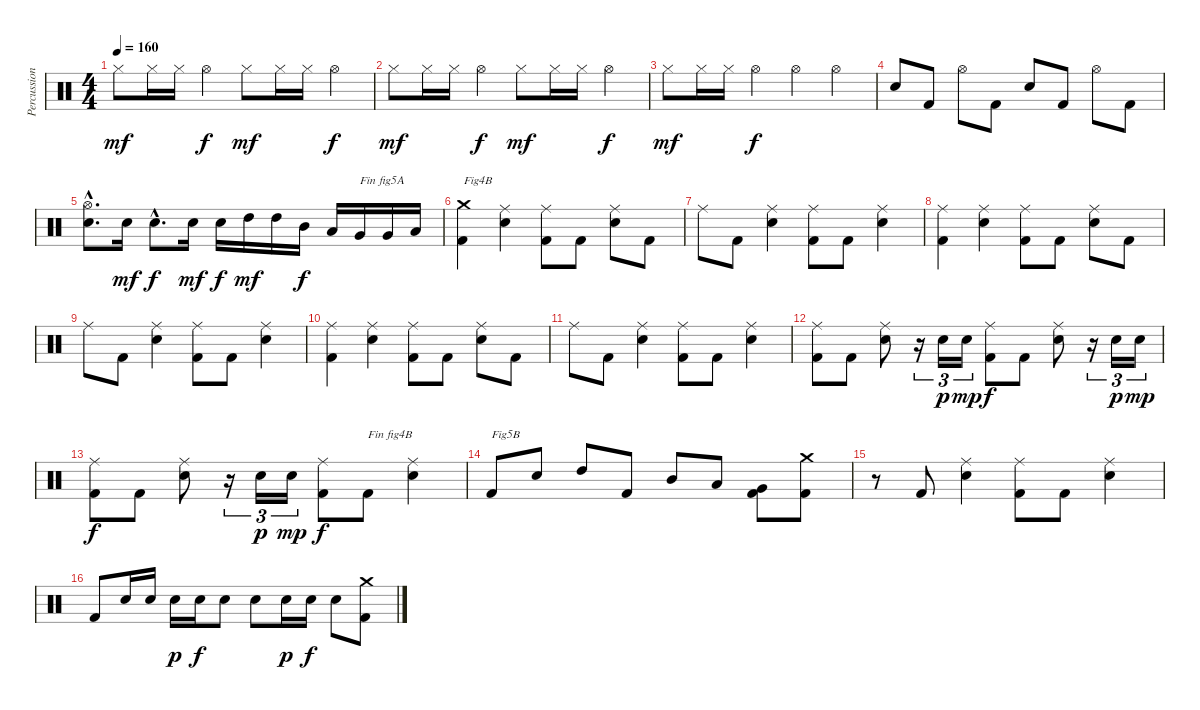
\track ("Percussions" "Percussion") {instrument percussion}
\staff {score}
\articulation defaults
\ts (4 4)
\tempo 160
\clef neutral
\ks c "Hi-Hat (closed)".8{dy mf} "Hi-Hat (closed)".16 "Hi-Hat (closed)".16 "Hi-Hat (open)".4{dy f} "Hi-Hat (closed)".8{dy mf} "Hi-Hat (closed)".16 "Hi-Hat (closed)".16 "Hi-Hat (open)".4{dy f}
|
"Hi-Hat (closed)".8{dy mf} "Hi-Hat (closed)".16 "Hi-Hat (closed)".16 "Hi-Hat (open)".4{dy f} "Hi-Hat (closed)".8{dy mf} "Hi-Hat (closed)".16 "Hi-Hat (closed)".16 "Hi-Hat (open)".4{dy f} |
"Hi-Hat (closed)".8{dy mf} "Hi-Hat (closed)".16 "Hi-Hat (closed)".16 "Hi-Hat (open)".4{dy f} "Hi-Hat (open)".4 "Hi-Hat (open)".4 |
"Electric Snare (hit)".8 "Kick (hit) 2".8 "Hi-Hat (open)".8 "Kick (hit) 2".8 "Electric Snare (hit)".8 "Kick (hit) 2".8 "Hi-Hat (open)".8 "Kick (hit) 2".8 |
("Electric Snare (hit)"{hac} "Hi-Hat (open)"{hac}).8{d} "Electric Snare (hit)".16{dy mf} "Electric Snare (hit)"{hac}.8{d dy f} "Electric Snare (hit)".16{dy mf} "Electric Snare (hit)".16{dy f} "High Tom (hit)".16{dy mf} "High Tom (hit)".16 "Mid Tom (hit)".16{dy f} "Low Tom (hit)".16 "Very Low Tom (hit)".16{txt "Fin fig5A"} "Very Low Tom (hit)".16 "Low Floor Tom (hit)".16 |
("Kick (hit) 2" "Crash medium (hit)").4{txt "Fig4B"} ("Electric Snare (hit)" "Ride (middle)").4 ("Kick (hit) 2" "Ride (middle)").8 "Kick (hit) 2".8 ("Electric Snare (hit)" "Ride (middle)").8 "Kick (hit) 2".8 |
"Ride (middle)".8 "Kick (hit) 2".8 ("Electric Snare (hit)" "Ride (middle)").4 ("Kick (hit) 2" "Ride (middle)").8 "Kick (hit) 2".8 ("Electric Snare (hit)" "Ride (middle)").4 |
("Kick (hit) 2" "Ride (middle)").4 ("Electric Snare (hit)" "Ride (middle)").4 ("Kick (hit) 2" "Ride (middle)").8 "Kick (hit) 2".8 ("Electric Snare (hit)" "Ride (middle)").8 "Kick (hit) 2".8 |
"Ride (middle)".8 "Kick (hit) 2".8 ("Electric Snare (hit)" "Ride (middle)").4 ("Kick (hit) 2" "Ride (middle)").8 "Kick (hit) 2".8 ("Electric Snare (hit)" "Ride (middle)").4 |
("Kick (hit) 2" "Ride (middle)").4 ("Electric Snare (hit)" "Ride (middle)").4 ("Kick (hit) 2" "Ride (middle)").8 "Kick (hit) 2".8 ("Electric Snare (hit)" "Ride (middle)").8 "Kick (hit) 2".8 |
"Ride (middle)".8 "Kick (hit) 2".8 ("Electric Snare (hit)" "Ride (middle)").4 ("Kick (hit) 2" "Ride (middle)").8 "Kick (hit) 2".8 ("Electric Snare (hit)" "Ride (middle)").4 |
("Kick (hit) 2" "Ride (middle)").8 "Kick (hit) 2".8 ("Electric Snare (hit)" "Ride (middle)").8 r.16{tu (3 2)} "Electric Snare (hit)".16{tu (3 2) dy p} "Electric Snare (hit)".16{tu (3 2) dy mp} ("Kick (hit) 2" "Ride (middle)").8{dy f} "Kick (hit) 2".8 ("Electric Snare (hit)" "Ride (middle)").8 r.16{tu (3 2)} "Electric Snare (hit)".16{tu (3 2) dy p} "Electric Snare (hit)".16{tu (3 2) dy mp} |
("Kick (hit) 2" "Ride (middle)").8{dy f} "Kick (hit) 2".8 ("Electric Snare (hit)" "Ride (middle)").8 r.16{tu (3 2)} "Electric Snare (hit)".16{tu (3 2) dy p} "Electric Snare (hit)".16{tu (3 2) dy mp} ("Kick (hit) 2" "Ride (middle)").8{dy f} "Kick (hit) 2".8{txt "Fin fig4B"} ("Electric Snare (hit)" "Ride (middle)").4 |
"Kick (hit) 2".8{txt "Fig5B"} "Electric Snare (hit)".8 "High Tom (hit)".8 "Kick (hit) 2".8 "Mid Tom (hit)".8 "Low Tom (hit)".8 ("Kick (hit) 2" "Very Low Tom (hit)").8 ("Kick (hit) 2" "Crash medium (hit)").8 |
r.8 "Kick (hit) 2".8 ("Electric Snare (hit)" "Ride (middle)").4 ("Kick (hit) 2" "Ride (middle)").8 "Kick (hit) 2".8 ("Electric Snare (hit)" "Ride (middle)").4 |
"Kick (hit) 2".8 "Electric Snare (hit)".16 "Electric Snare (hit)".16 "Electric Snare (hit)".16{dy p} "Electric Snare (hit)".16{dy f} "Electric Snare (hit)".8 "Electric Snare (hit)".8 "Electric Snare (hit)".16{dy p} "Electric Snare (hit)".16{dy f} "Electric Snare (hit)".8 ("Kick (hit) 2" "Crash medium (hit)").8
